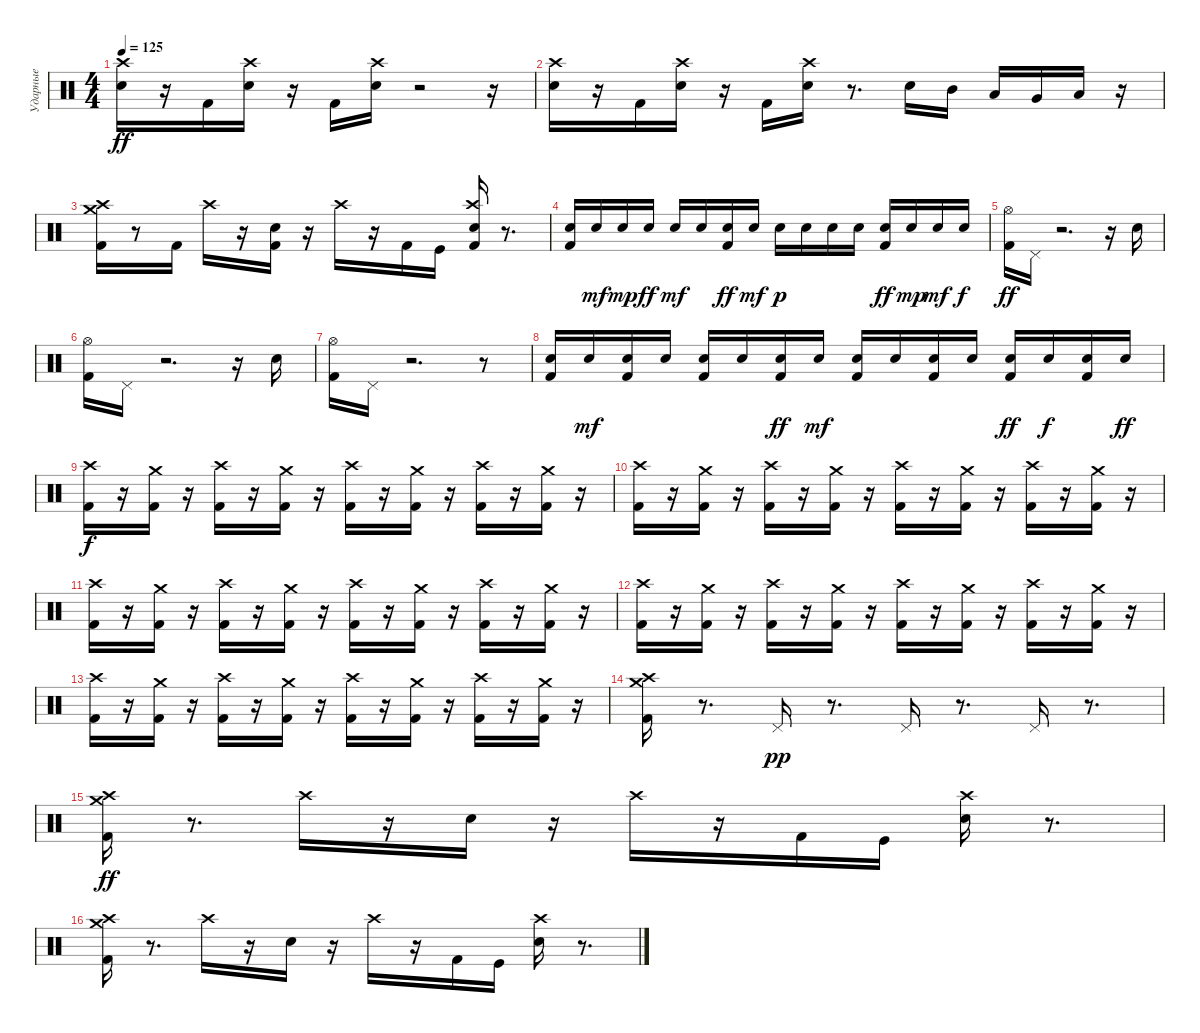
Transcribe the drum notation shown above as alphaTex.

\track ("Ударные" "Ударные") {instrument percussion}
\staff {score}
\articulation defaults
\ts (4 4)
\tempo 125
\clef neutral
\ks c
("Snare (hit) 2" "Crash high (hit)").16{dy ff} r.16 "Kick (hit) 2".16 ("Snare (hit) 2" "Crash high (hit)").16 r.16 "Kick (hit) 2".16 ("Snare (hit) 2" "Crash high (hit)").16 r.2 r.16 |
("Crash high (hit)" "Snare (hit) 2").16 r.16 "Kick (hit) 2".16 ("Crash high (hit)" "Snare (hit) 2").16 r.16 "Kick (hit) 2".16 ("Crash high (hit)" "Snare (hit) 2").16 r.8{d} "Snare (hit) 2".16 "Mid Tom (hit)".16 "Low Tom (hit)".16 "Very Low Tom (hit)".16 "Low Floor Tom (hit)".16 r.16 |
("Crash medium (hit)" "Crash high (hit)" "Kick (hit) 2").16 r.8 "Kick (hit) 2".16 "Crash high (hit)".16 r.16 ("Snare (hit) 2" "Kick (hit) 2").16 r.16 "Crash high (hit)".16 r.16 "Kick (hit) 2".16 "Kick (hit)".16 ("Crash high (hit)" "Snare (hit) 2" "Kick (hit) 2").16 r.8{d} |
("Kick (hit) 2" "Snare (hit) 2").16 "Snare (hit) 2".16{dy mf} "Snare (hit) 2".16{dy mp} "Snare (hit) 2".16{dy ff} "Snare (hit) 2".16{dy mf} "Snare (hit) 2".16 ("Kick (hit) 2" "Snare (hit) 2").16{dy ff} "Snare (hit) 2".16{dy mf} "Snare (hit) 2".16{dy p} "Snare (hit) 2".16 "Snare (hit) 2".16 "Snare (hit) 2".16 ("Kick (hit) 2" "Snare (hit) 2").16{dy ff} "Snare (hit) 2".16{dy mp} "Snare (hit) 2".16{dy mf} "Snare (hit) 2".16{dy f} |
("Kick (hit) 2" "Hi-Hat (open)").16{dy ff} "Pedal Hi-Hat (hit)".16 r.2{d} r.16 "Snare (hit) 2".16 |
("Hi-Hat (open)" "Kick (hit) 2").16 "Pedal Hi-Hat (hit)".16 r.2{d} r.16 "Snare (hit) 2".16 |
("Hi-Hat (open)" "Kick (hit) 2").16 "Pedal Hi-Hat (hit)".16 r.2{d} r.8 |
("Kick (hit) 2" "Snare (hit) 2").16 "Snare (hit) 2".16{dy mf} ("Kick (hit) 2" "Snare (hit) 2").16 "Snare (hit) 2".16 ("Kick (hit) 2" "Snare (hit) 2").16 "Snare (hit) 2".16 ("Kick (hit) 2" "Snare (hit) 2").16{dy ff} "Snare (hit) 2".16{dy mf} ("Kick (hit) 2" "Snare (hit) 2").16 "Snare (hit) 2".16 ("Kick (hit) 2" "Snare (hit) 2").16 "Snare (hit) 2".16 ("Kick (hit) 2" "Snare (hit) 2").16{dy ff} "Snare (hit) 2".16{dy f} ("Kick (hit) 2" "Snare (hit) 2").16 "Snare (hit) 2".16{dy ff} |
("Crash high (hit)" "Kick (hit) 2").16{dy f} r.16 ("Crash medium (hit)" "Kick (hit) 2").16 r.16 ("Crash high (hit)" "Kick (hit) 2").16 r.16 ("Crash medium (hit)" "Kick (hit) 2").16 r.16 ("Crash high (hit)" "Kick (hit) 2").16 r.16 ("Crash medium (hit)" "Kick (hit) 2").16 r.16 ("Crash high (hit)" "Kick (hit) 2").16 r.16 ("Crash medium (hit)" "Kick (hit) 2").16 r.16 |
("Crash high (hit)" "Kick (hit) 2").16 r.16 ("Crash medium (hit)" "Kick (hit) 2").16 r.16 ("Crash high (hit)" "Kick (hit) 2").16 r.16 ("Crash medium (hit)" "Kick (hit) 2").16 r.16 ("Crash high (hit)" "Kick (hit) 2").16 r.16 ("Crash medium (hit)" "Kick (hit) 2").16 r.16 ("Crash high (hit)" "Kick (hit) 2").16 r.16 ("Crash medium (hit)" "Kick (hit) 2").16 r.16 |
("Crash high (hit)" "Kick (hit) 2").16 r.16 ("Crash medium (hit)" "Kick (hit) 2").16 r.16 ("Crash high (hit)" "Kick (hit) 2").16 r.16 ("Crash medium (hit)" "Kick (hit) 2").16 r.16 ("Crash high (hit)" "Kick (hit) 2").16 r.16 ("Crash medium (hit)" "Kick (hit) 2").16 r.16 ("Crash high (hit)" "Kick (hit) 2").16 r.16 ("Crash medium (hit)" "Kick (hit) 2").16 r.16 |
("Crash high (hit)" "Kick (hit) 2").16 r.16 ("Crash medium (hit)" "Kick (hit) 2").16 r.16 ("Crash high (hit)" "Kick (hit) 2").16 r.16 ("Crash medium (hit)" "Kick (hit) 2").16 r.16 ("Crash high (hit)" "Kick (hit) 2").16 r.16 ("Crash medium (hit)" "Kick (hit) 2").16 r.16 ("Crash high (hit)" "Kick (hit) 2").16 r.16 ("Crash medium (hit)" "Kick (hit) 2").16 r.16 |
("Crash high (hit)" "Kick (hit) 2").16 r.16 ("Crash medium (hit)" "Kick (hit) 2").16 r.16 ("Crash high (hit)" "Kick (hit) 2").16 r.16 ("Crash medium (hit)" "Kick (hit) 2").16 r.16 ("Crash high (hit)" "Kick (hit) 2").16 r.16 ("Crash medium (hit)" "Kick (hit) 2").16 r.16 ("Crash high (hit)" "Kick (hit) 2").16 r.16 ("Crash medium (hit)" "Kick (hit) 2").16 r.16 |
("Crash medium (hit)" "Crash high (hit)" "Kick (hit) 2").16 r.8{d} "Pedal Hi-Hat (hit)".16{dy pp} r.8{d} "Pedal Hi-Hat (hit)".16 r.8{d} "Pedal Hi-Hat (hit)".16 r.8{d} |
("Kick (hit) 2" "Crash high (hit)" "Crash medium (hit)").16{dy ff} r.8{d} "Crash high (hit)".16 r.16 "Snare (hit) 2".16 r.16 "Crash high (hit)".16 r.16 "Kick (hit) 2".16 "Kick (hit)".16 ("Crash high (hit)" "Snare (hit) 2").16 r.8{d} |
("Kick (hit) 2" "Crash high (hit)" "Crash medium (hit)").16 r.8{d} "Crash high (hit)".16 r.16 "Snare (hit) 2".16 r.16 "Crash high (hit)".16 r.16 "Kick (hit) 2".16 "Kick (hit)".16 ("Crash high (hit)" "Snare (hit) 2").16 r.8{d}
